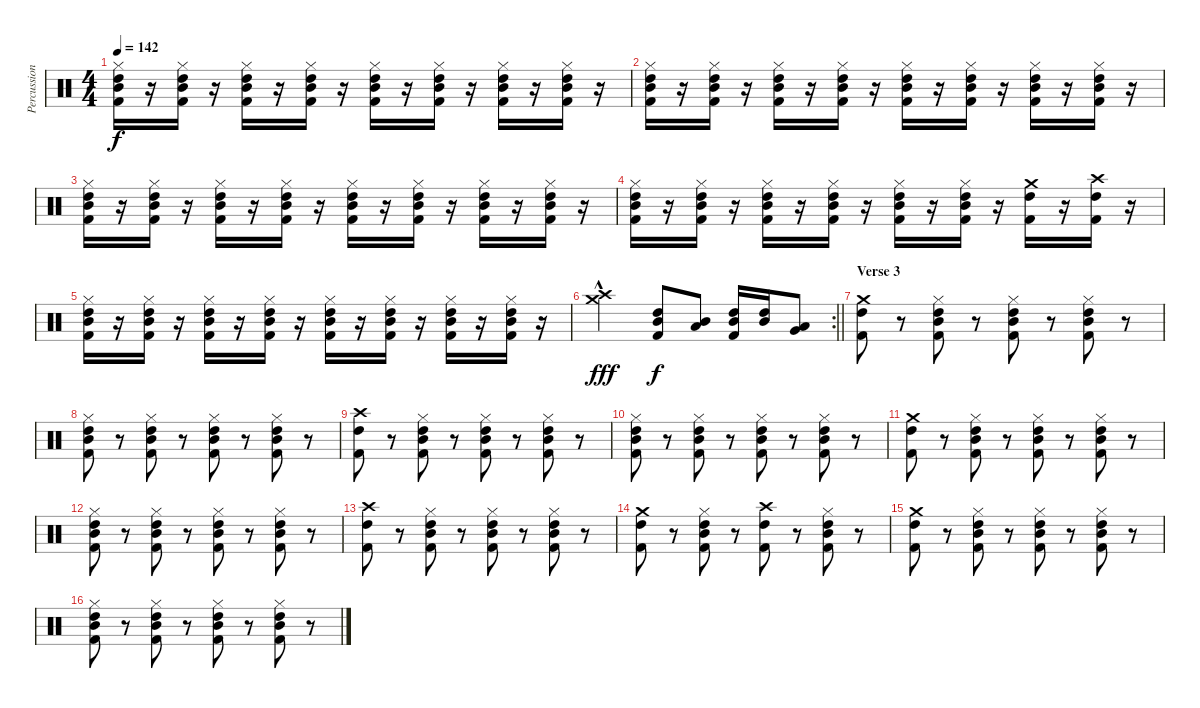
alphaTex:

\track ("Percussion" "Percussion") {instrument percussion}
\staff {score}
\articulation defaults
\ts (4 4)
\tempo 142
\clef neutral
\ks c
("Hi-Hat (closed)" "High Tom (hit)" "Mid Tom (hit)" "Kick (hit) 2").16{dy f} r.16 ("Hi-Hat (closed)" "High Tom (hit)" "Mid Tom (hit)" "Kick (hit) 2").16 r.16 ("Hi-Hat (closed)" "High Tom (hit)" "Mid Tom (hit)" "Kick (hit) 2").16 r.16 ("Hi-Hat (closed)" "High Tom (hit)" "Mid Tom (hit)" "Kick (hit) 2").16 r.16 ("Hi-Hat (closed)" "High Tom (hit)" "Mid Tom (hit)" "Kick (hit) 2").16 r.16 ("Hi-Hat (closed)" "High Tom (hit)" "Mid Tom (hit)" "Kick (hit) 2").16 r.16 ("Hi-Hat (closed)" "High Tom (hit)" "Mid Tom (hit)" "Kick (hit) 2").16 r.16 ("Hi-Hat (closed)" "High Tom (hit)" "Mid Tom (hit)" "Kick (hit) 2").16 r.16 |
("Hi-Hat (closed)" "High Tom (hit)" "Mid Tom (hit)" "Kick (hit) 2").16 r.16 ("Hi-Hat (closed)" "High Tom (hit)" "Mid Tom (hit)" "Kick (hit) 2").16 r.16 ("Hi-Hat (closed)" "High Tom (hit)" "Mid Tom (hit)" "Kick (hit) 2").16 r.16 ("Hi-Hat (closed)" "High Tom (hit)" "Mid Tom (hit)" "Kick (hit) 2").16 r.16 ("Hi-Hat (closed)" "High Tom (hit)" "Mid Tom (hit)" "Kick (hit) 2").16 r.16 ("Hi-Hat (closed)" "High Tom (hit)" "Mid Tom (hit)" "Kick (hit) 2").16 r.16 ("Hi-Hat (closed)" "High Tom (hit)" "Mid Tom (hit)" "Kick (hit) 2").16 r.16 ("Hi-Hat (closed)" "High Tom (hit)" "Mid Tom (hit)" "Kick (hit) 2").16 r.16 |
("Hi-Hat (closed)" "High Tom (hit)" "Mid Tom (hit)" "Kick (hit) 2").16 r.16 ("Hi-Hat (closed)" "High Tom (hit)" "Mid Tom (hit)" "Kick (hit) 2").16 r.16 ("Hi-Hat (closed)" "High Tom (hit)" "Mid Tom (hit)" "Kick (hit) 2").16 r.16 ("Hi-Hat (closed)" "High Tom (hit)" "Mid Tom (hit)" "Kick (hit) 2").16 r.16 ("Hi-Hat (closed)" "High Tom (hit)" "Mid Tom (hit)" "Kick (hit) 2").16 r.16 ("Hi-Hat (closed)" "High Tom (hit)" "Mid Tom (hit)" "Kick (hit) 2").16 r.16 ("Hi-Hat (closed)" "High Tom (hit)" "Mid Tom (hit)" "Kick (hit) 2").16 r.16 ("Hi-Hat (closed)" "High Tom (hit)" "Mid Tom (hit)" "Kick (hit) 2").16 r.16 |
("Hi-Hat (closed)" "High Tom (hit)" "Mid Tom (hit)" "Kick (hit) 2").16 r.16 ("Hi-Hat (closed)" "High Tom (hit)" "Mid Tom (hit)" "Kick (hit) 2").16 r.16 ("Hi-Hat (closed)" "High Tom (hit)" "Mid Tom (hit)" "Kick (hit) 2").16 r.16 ("Hi-Hat (closed)" "High Tom (hit)" "Mid Tom (hit)" "Kick (hit) 2").16 r.16 ("Hi-Hat (closed)" "High Tom (hit)" "Mid Tom (hit)" "Kick (hit) 2").16 r.16 ("Hi-Hat (closed)" "High Tom (hit)" "Mid Tom (hit)" "Kick (hit) 2").16 r.16 ("Crash medium (hit)" "High Tom (hit)" "Kick (hit) 2").16 r.16 ("Crash high (hit)" "High Tom (hit)" "Kick (hit) 2").16 r.16 |
("Hi-Hat (closed)" "High Tom (hit)" "Mid Tom (hit)" "Kick (hit) 2").16 r.16 ("Hi-Hat (closed)" "High Tom (hit)" "Mid Tom (hit)" "Kick (hit) 2").16 r.16 ("Hi-Hat (closed)" "High Tom (hit)" "Mid Tom (hit)" "Kick (hit) 2").16 r.16 ("Hi-Hat (closed)" "High Tom (hit)" "Mid Tom (hit)" "Kick (hit) 2").16 r.16 ("Hi-Hat (closed)" "High Tom (hit)" "Mid Tom (hit)" "Kick (hit) 2").16 r.16 ("Hi-Hat (closed)" "High Tom (hit)" "Mid Tom (hit)" "Kick (hit) 2").16 r.16 ("Hi-Hat (closed)" "High Tom (hit)" "Mid Tom (hit)" "Kick (hit) 2").16 r.16 ("Hi-Hat (closed)" "High Tom (hit)" "Mid Tom (hit)" "Kick (hit) 2").16 r.16 |
\rc 2
\barLineRight lightlight
("Crash high (hit)"{hac} "Crash medium (hit)"{hac}).2{dy fff} ("Mid Tom (hit)" "High Tom (hit)" "Kick (hit) 2").8{dy f} ("Low Tom (hit)" "Mid Tom (hit)").8 ("Mid Tom (hit)" "High Tom (hit)" "Kick (hit) 2").16 ("Mid Tom (hit)" "High Tom (hit)").16 ("Low Tom (hit)" "Very Low Tom (hit)").8 |
\section ("" "Verse 3")
("Crash medium (hit)" "High Tom (hit)" "Kick (hit) 2").8 r.8 ("Hi-Hat (closed)" "High Tom (hit)" "Mid Tom (hit)" "Kick (hit) 2").8 r.8 ("Hi-Hat (closed)" "High Tom (hit)" "Mid Tom (hit)" "Kick (hit) 2").8 r.8 ("Hi-Hat (closed)" "High Tom (hit)" "Mid Tom (hit)" "Kick (hit) 2").8 r.8 |
("Hi-Hat (closed)" "High Tom (hit)" "Mid Tom (hit)" "Kick (hit) 2").8 r.8 ("Hi-Hat (closed)" "High Tom (hit)" "Mid Tom (hit)" "Kick (hit) 2").8 r.8 ("Hi-Hat (closed)" "High Tom (hit)" "Mid Tom (hit)" "Kick (hit) 2").8 r.8 ("Hi-Hat (closed)" "High Tom (hit)" "Mid Tom (hit)" "Kick (hit) 2").8 r.8 |
("Crash high (hit)" "High Tom (hit)" "Kick (hit) 2").8 r.8 ("Hi-Hat (closed)" "High Tom (hit)" "Mid Tom (hit)" "Kick (hit) 2").8 r.8 ("Hi-Hat (closed)" "High Tom (hit)" "Mid Tom (hit)" "Kick (hit) 2").8 r.8 ("Hi-Hat (closed)" "High Tom (hit)" "Mid Tom (hit)" "Kick (hit) 2").8 r.8 |
("Hi-Hat (closed)" "High Tom (hit)" "Mid Tom (hit)" "Kick (hit) 2").8 r.8 ("Hi-Hat (closed)" "High Tom (hit)" "Mid Tom (hit)" "Kick (hit) 2").8 r.8 ("Hi-Hat (closed)" "High Tom (hit)" "Mid Tom (hit)" "Kick (hit) 2").8 r.8 ("Hi-Hat (closed)" "High Tom (hit)" "Mid Tom (hit)" "Kick (hit) 2").8 r.8 |
("Crash medium (hit)" "High Tom (hit)" "Kick (hit) 2").8 r.8 ("Hi-Hat (closed)" "High Tom (hit)" "Mid Tom (hit)" "Kick (hit) 2").8 r.8 ("Hi-Hat (closed)" "High Tom (hit)" "Mid Tom (hit)" "Kick (hit) 2").8 r.8 ("Hi-Hat (closed)" "High Tom (hit)" "Mid Tom (hit)" "Kick (hit) 2").8 r.8 |
("Hi-Hat (closed)" "High Tom (hit)" "Mid Tom (hit)" "Kick (hit) 2").8 r.8 ("Hi-Hat (closed)" "High Tom (hit)" "Mid Tom (hit)" "Kick (hit) 2").8 r.8 ("Hi-Hat (closed)" "High Tom (hit)" "Mid Tom (hit)" "Kick (hit) 2").8 r.8 ("Hi-Hat (closed)" "High Tom (hit)" "Mid Tom (hit)" "Kick (hit) 2").8 r.8 |
("Crash high (hit)" "High Tom (hit)" "Kick (hit) 2").8 r.8 ("Hi-Hat (closed)" "High Tom (hit)" "Mid Tom (hit)" "Kick (hit) 2").8 r.8 ("Hi-Hat (closed)" "High Tom (hit)" "Mid Tom (hit)" "Kick (hit) 2").8 r.8 ("Hi-Hat (closed)" "High Tom (hit)" "Mid Tom (hit)" "Kick (hit) 2").8 r.8 |
("Crash medium (hit)" "High Tom (hit)" "Kick (hit) 2").8 r.8 ("Hi-Hat (closed)" "High Tom (hit)" "Mid Tom (hit)" "Kick (hit) 2").8 r.8 ("Crash high (hit)" "High Tom (hit)" "Kick (hit) 2").8 r.8 ("Hi-Hat (closed)" "High Tom (hit)" "Mid Tom (hit)" "Kick (hit) 2").8 r.8 |
("Crash medium (hit)" "High Tom (hit)" "Kick (hit) 2").8 r.8 ("Hi-Hat (closed)" "High Tom (hit)" "Mid Tom (hit)" "Kick (hit) 2").8 r.8 ("Hi-Hat (closed)" "High Tom (hit)" "Mid Tom (hit)" "Kick (hit) 2").8 r.8 ("Hi-Hat (closed)" "High Tom (hit)" "Mid Tom (hit)" "Kick (hit) 2").8 r.8 |
("Hi-Hat (closed)" "High Tom (hit)" "Mid Tom (hit)" "Kick (hit) 2").8 r.8 ("Hi-Hat (closed)" "High Tom (hit)" "Mid Tom (hit)" "Kick (hit) 2").8 r.8 ("Hi-Hat (closed)" "High Tom (hit)" "Mid Tom (hit)" "Kick (hit) 2").8 r.8 ("Hi-Hat (closed)" "High Tom (hit)" "Mid Tom (hit)" "Kick (hit) 2").8 r.8
